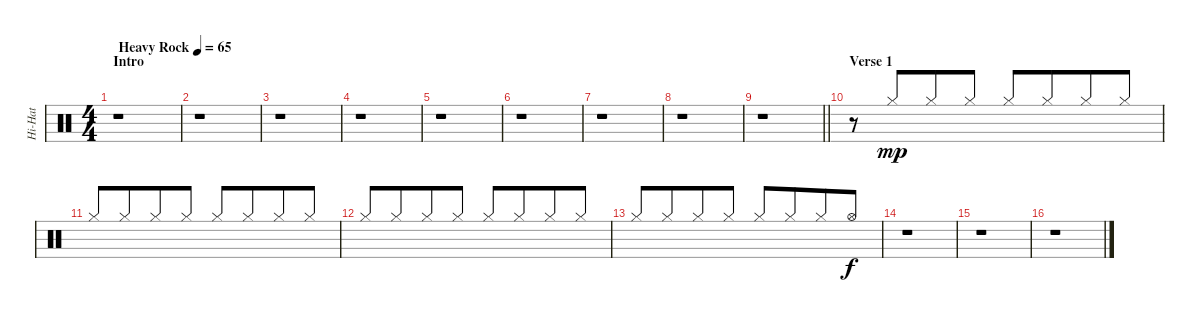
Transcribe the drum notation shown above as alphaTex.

\track ("Hi-Hat" "Hi-Hat") {instrument percussion}
\staff {score}
\articulation defaults
\ts (4 4)
\section ("" "Intro")
\tempo (65 "Heavy Rock")
\clef neutral
\ks c
r.1{dy mp balance 11} |
r.1 |
r.1 |
r.1 |
r.1 |
r.1 |
r.1 |
r.1 |
\barLineRight lightlight
r.1 |
\section ("" "Verse 1")
r.8{volume 10} "Hi-Hat (closed)".8{beam Up beam merge} "Hi-Hat (closed)".8{beam Up} "Hi-Hat (closed)".8{beam Up} "Hi-Hat (closed)".8{beam Up} "Hi-Hat (closed)".8{beam Up beam merge} "Hi-Hat (closed)".8{beam Up} "Hi-Hat (closed)".8{beam Up} |
"Hi-Hat (closed)".8{beam Up} "Hi-Hat (closed)".8{beam Up beam merge} "Hi-Hat (closed)".8{beam Up} "Hi-Hat (closed)".8{beam Up} "Hi-Hat (closed)".8{beam Up} "Hi-Hat (closed)".8{beam Up beam merge} "Hi-Hat (closed)".8{beam Up} "Hi-Hat (closed)".8{beam Up} |
"Hi-Hat (closed)".8{beam Up} "Hi-Hat (closed)".8{beam Up beam merge} "Hi-Hat (closed)".8{beam Up} "Hi-Hat (closed)".8{beam Up} "Hi-Hat (closed)".8{beam Up} "Hi-Hat (closed)".8{beam Up beam merge} "Hi-Hat (closed)".8{beam Up} "Hi-Hat (closed)".8{beam Up} |
"Hi-Hat (closed)".8{beam Up} "Hi-Hat (closed)".8{beam Up beam merge} "Hi-Hat (closed)".8{beam Up} "Hi-Hat (closed)".8{beam Up} "Hi-Hat (closed)".8{beam Up} "Hi-Hat (closed)".8{beam Up beam merge} "Hi-Hat (closed)".8{beam Up} "Hi-Hat (open)".8{dy f beam Up} |
r.1 |
r.1 |
r.1
